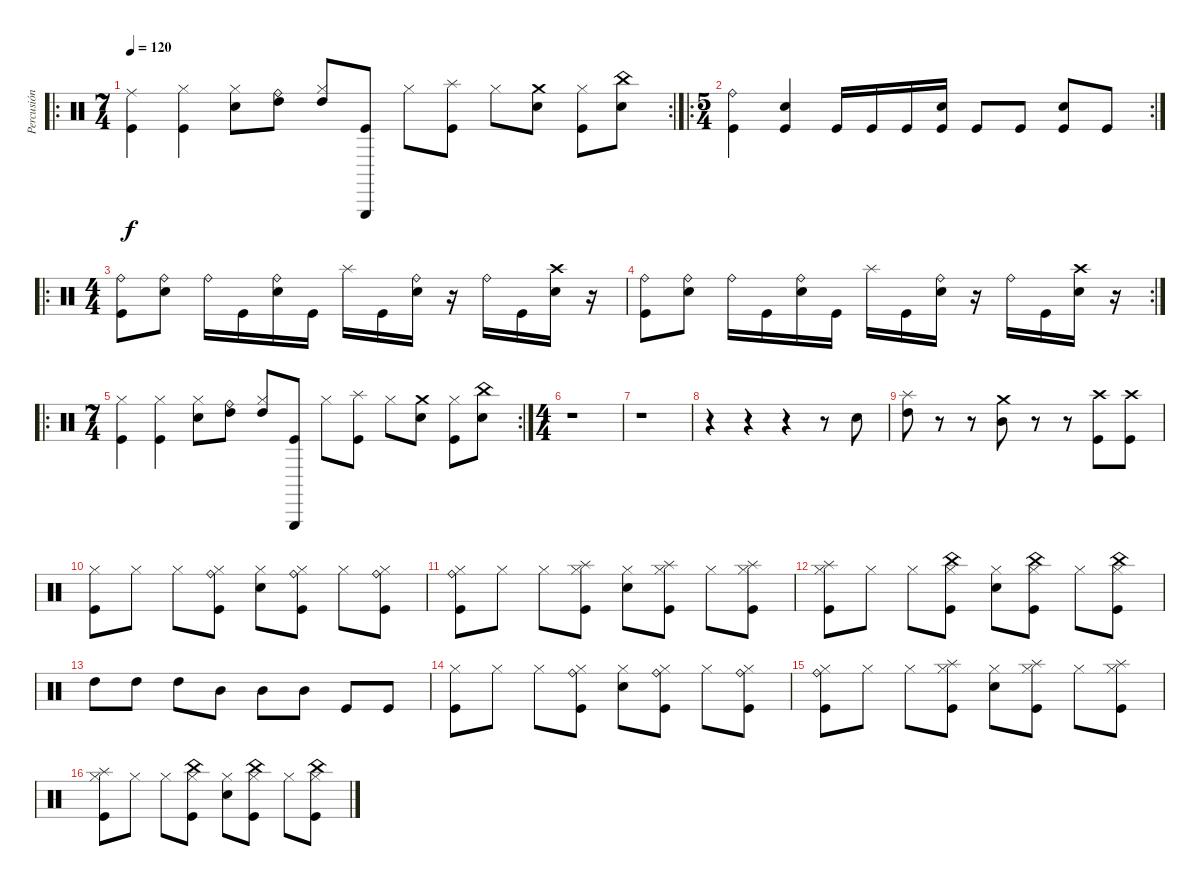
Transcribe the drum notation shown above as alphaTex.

\track ("Percusión" "Percusión") {instrument percussion}
\staff {score}
\articulation defaults
\ro
\rc 2
\ts (7 4)
\tempo 120
\clef neutral
\ks c
("Ride (middle)" "Kick (hit)").4{dy f} ("Hi-Hat (closed)" "Kick (hit)").4 ("Hi-Hat (closed)" "Snare (hit) 2").8 ("Ride (bell)" "High Tom (hit)").8 ("Hi-Hat (closed)" "High Tom (hit)").8 ("Triangle (hit)" "Kick (hit)").8 "Hi-Hat (closed)".8 ("Splash (hit)" "Kick (hit)").8 "Hi-Hat (closed)".8 ("Crash medium (hit)" "Snare (hit) 2").8 ("Hi-Hat (closed)" "Kick (hit)").8 ("China (hit)" "Snare (hit) 2").8 |
\ro
\rc 2
\ts (5 4)
("Ride (bell)" "Kick (hit)").4 ("Snare (hit) 2" "Kick (hit)").4 "Kick (hit)".16 "Kick (hit)".16 "Kick (hit)".16 ("Snare (hit) 2" "Kick (hit)").16 "Kick (hit)".8 "Kick (hit)".8 ("Snare (hit) 2" "Kick (hit)").8 "Kick (hit)".8 |
\ro
\ts (4 4)
("Ride (bell)" "Kick (hit)").8 ("Ride (bell)" "Snare (hit) 2").8 "Ride (bell)".16 "Kick (hit)".16 ("Ride (bell)" "Snare (hit) 2").16 "Kick (hit)".16 "Splash (hit)".16 "Kick (hit)".16 ("Ride (bell)" "Snare (hit) 2").16 r.16 "Ride (bell)".16 "Kick (hit)".16 ("Crash high (hit)" "Snare (hit) 2").16 r.16 |
\rc 2
("Ride (bell)" "Kick (hit)").8 ("Ride (bell)" "Snare (hit) 2").8 "Ride (bell)".16 "Kick (hit)".16 ("Ride (bell)" "Snare (hit) 2").16 "Kick (hit)".16 "Splash (hit)".16 "Kick (hit)".16 ("Ride (bell)" "Snare (hit) 2").16 r.16 "Ride (bell)".16 "Kick (hit)".16 ("Crash high (hit)" "Snare (hit) 2").16 r.16 |
\ro
\rc 2
\ts (7 4)
("Hi-Hat (closed)" "Kick (hit)").4 ("Hi-Hat (closed)" "Kick (hit)").4 ("Hi-Hat (closed)" "Snare (hit) 2").8 ("Ride (bell)" "High Tom (hit)").8 ("Hi-Hat (closed)" "High Tom (hit)").8 ("Triangle (hit)" "Kick (hit)").8 "Hi-Hat (closed)".8 ("Splash (hit)" "Kick (hit)").8 "Hi-Hat (closed)".8 ("Crash medium (hit)" "Snare (hit) 2").8 ("Hi-Hat (closed)" "Kick (hit)").8 ("China (hit)" "Snare (hit) 2").8 |
\ts (4 4)
r.1 |
r.1 |
r.4 r.4 r.4 r.8 "Snare (hit) 2".8 |
("Splash (hit)" "High Tom (hit)").8 r.8 r.8 ("Crash medium (hit)" "Mid Tom (hit)").8 r.8 r.8 ("Crash high (hit)" "Kick (hit)").8 ("Crash high (hit)" "Kick (hit)").8 |
("Hi-Hat (closed)" "Kick (hit)").8 "Hi-Hat (closed)".8 "Hi-Hat (closed)".8 ("Ride (bell)" "Hi-Hat (closed)" "Kick (hit)").8 ("Hi-Hat (closed)" "Snare (hit) 2").8 ("Ride (bell)" "Hi-Hat (closed)" "Kick (hit)").8 "Hi-Hat (closed)".8 ("Ride (bell)" "Hi-Hat (closed)" "Kick (hit)").8 |
("Ride (bell)" "Hi-Hat (closed)" "Kick (hit)").8 "Hi-Hat (closed)".8 "Hi-Hat (closed)".8 ("Splash (hit)" "Hi-Hat (closed)" "Kick (hit)").8 ("Hi-Hat (closed)" "Snare (hit) 2").8 ("Splash (hit)" "Hi-Hat (closed)" "Kick (hit)").8 "Hi-Hat (closed)".8 ("Splash (hit)" "Hi-Hat (closed)" "Kick (hit)").8 |
("Splash (hit)" "Hi-Hat (closed)" "Kick (hit)").8 "Hi-Hat (closed)".8 "Hi-Hat (closed)".8 ("China (hit)" "Hi-Hat (closed)" "Kick (hit)").8 ("Hi-Hat (closed)" "Snare (hit) 2").8 ("China (hit)" "Hi-Hat (closed)" "Kick (hit)").8 "Hi-Hat (closed)".8 ("China (hit)" "Hi-Hat (closed)" "Kick (hit)").8 |
"High Tom (hit)".8 "High Tom (hit)".8 "High Tom (hit)".8 "Mid Tom (hit)".8 "Mid Tom (hit)".8 "Mid Tom (hit)".8 "Kick (hit)".8 "Kick (hit)".8 |
("Hi-Hat (closed)" "Kick (hit)").8 "Hi-Hat (closed)".8 "Hi-Hat (closed)".8 ("Ride (bell)" "Hi-Hat (closed)" "Kick (hit)").8 ("Hi-Hat (closed)" "Snare (hit) 2").8 ("Ride (bell)" "Hi-Hat (closed)" "Kick (hit)").8 "Hi-Hat (closed)".8 ("Ride (bell)" "Hi-Hat (closed)" "Kick (hit)").8 |
("Ride (bell)" "Hi-Hat (closed)" "Kick (hit)").8 "Hi-Hat (closed)".8 "Hi-Hat (closed)".8 ("Splash (hit)" "Hi-Hat (closed)" "Kick (hit)").8 ("Hi-Hat (closed)" "Snare (hit) 2").8 ("Splash (hit)" "Hi-Hat (closed)" "Kick (hit)").8 "Hi-Hat (closed)".8 ("Splash (hit)" "Hi-Hat (closed)" "Kick (hit)").8 |
("Splash (hit)" "Hi-Hat (closed)" "Kick (hit)").8 "Hi-Hat (closed)".8 "Hi-Hat (closed)".8 ("China (hit)" "Hi-Hat (closed)" "Kick (hit)").8 ("Hi-Hat (closed)" "Snare (hit) 2").8 ("China (hit)" "Hi-Hat (closed)" "Kick (hit)").8 "Hi-Hat (closed)".8 ("China (hit)" "Hi-Hat (closed)" "Kick (hit)").8
